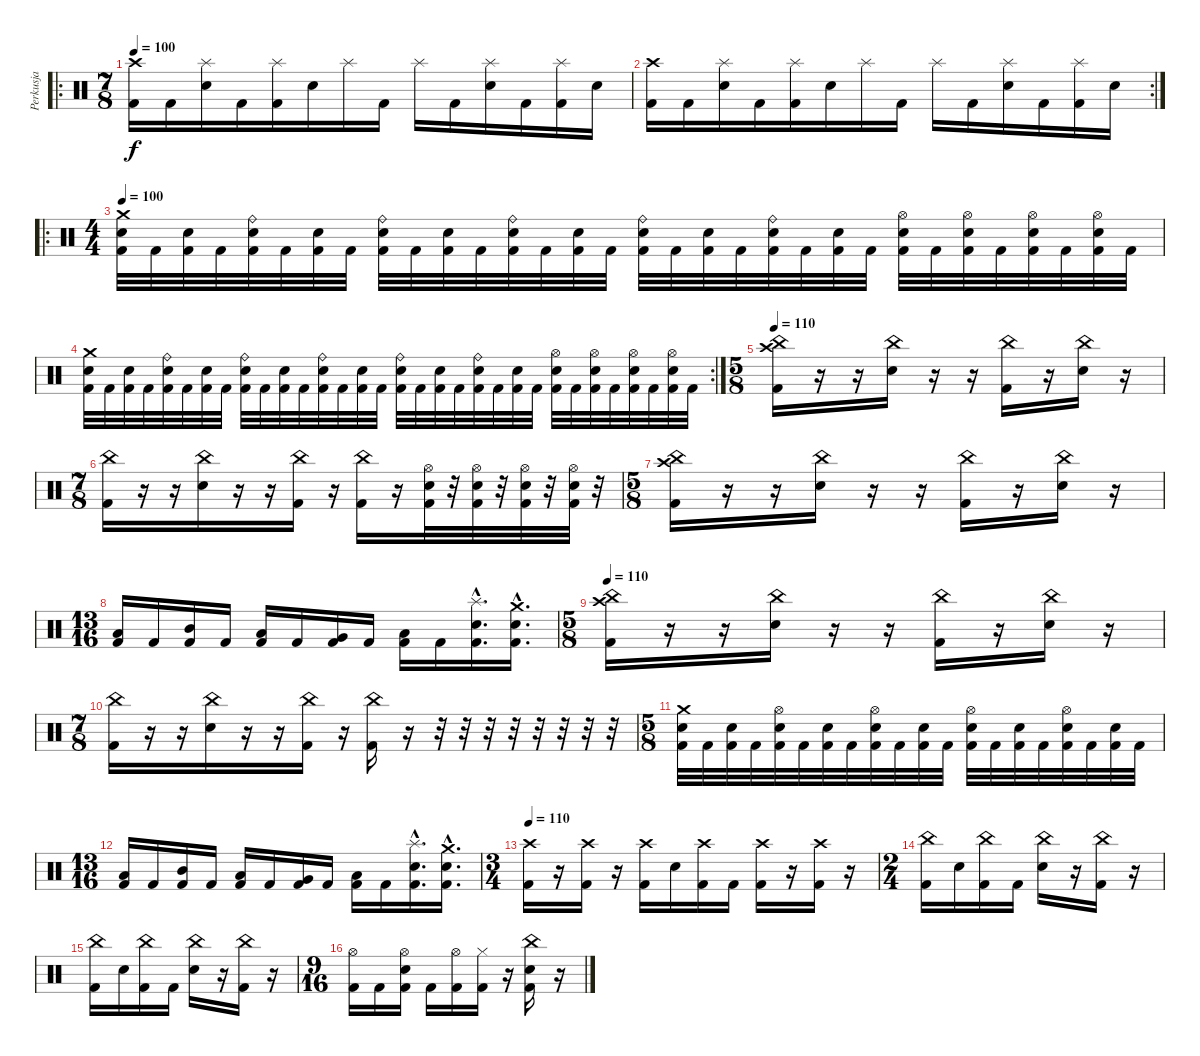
\track ("Perkusja" "Perkusja") {instrument percussion}
\staff {score}
\articulation defaults
\ro
\ts (7 8)
\tempo 100
\clef neutral
\ks c
("Crash high (hit)" "Kick (hit) 2").16{dy f} "Kick (hit) 2".16 ("Splash (hit)" "Electric Snare (hit)").16 "Kick (hit) 2".16 ("Splash (hit)" "Kick (hit) 2").16 "Electric Snare (hit)".16 "Splash (hit)".16 "Kick (hit) 2".16 "Splash (hit)".16 "Kick (hit) 2".16 ("Splash (hit)" "Electric Snare (hit)").16 "Kick (hit) 2".16 ("Splash (hit)" "Kick (hit) 2").16 "Electric Snare (hit)".16 |
\rc 2
("Crash high (hit)" "Kick (hit) 2").16 "Kick (hit) 2".16 ("Splash (hit)" "Electric Snare (hit)").16 "Kick (hit) 2".16 ("Splash (hit)" "Kick (hit) 2").16 "Electric Snare (hit)".16 "Splash (hit)".16 "Kick (hit) 2".16 "Splash (hit)".16 "Kick (hit) 2".16 ("Splash (hit)" "Electric Snare (hit)").16 "Kick (hit) 2".16 ("Splash (hit)" "Kick (hit) 2").16 "Electric Snare (hit)".16 |
\ro
\ts (4 4)
\tempo 100
("Crash medium (hit)" "Snare (hit) 2" "Kick (hit) 2").32 "Kick (hit) 2".32 ("Snare (hit) 2" "Kick (hit) 2").32 "Kick (hit) 2".32 ("Ride (bell)" "Snare (hit) 2" "Kick (hit) 2").32 "Kick (hit) 2".32 ("Snare (hit) 2" "Kick (hit) 2").32 "Kick (hit) 2".32 ("Ride (bell)" "Snare (hit) 2" "Kick (hit) 2").32 "Kick (hit) 2".32 ("Snare (hit) 2" "Kick (hit) 2").32 "Kick (hit) 2".32 ("Ride (bell)" "Snare (hit) 2" "Kick (hit) 2").32 "Kick (hit) 2".32 ("Snare (hit) 2" "Kick (hit) 2").32 "Kick (hit) 2".32 ("Ride (bell)" "Snare (hit) 2" "Kick (hit) 2").32 "Kick (hit) 2".32 ("Snare (hit) 2" "Kick (hit) 2").32 "Kick (hit) 2".32 ("Ride (bell)" "Snare (hit) 2" "Kick (hit) 2").32 "Kick (hit) 2".32 ("Snare (hit) 2" "Kick (hit) 2").32 "Kick (hit) 2".32 ("Hi-Hat (open)" "Snare (hit) 2" "Kick (hit) 2").32 "Kick (hit) 2".32 ("Hi-Hat (open)" "Snare (hit) 2" "Kick (hit) 2").32 "Kick (hit) 2".32 ("Hi-Hat (open)" "Snare (hit) 2" "Kick (hit) 2").32 "Kick (hit) 2".32 ("Hi-Hat (open)" "Snare (hit) 2" "Kick (hit) 2").32 "Kick (hit) 2".32 |
\rc 2
("Crash medium (hit)" "Snare (hit) 2" "Kick (hit) 2").32 "Kick (hit) 2".32 ("Snare (hit) 2" "Kick (hit) 2").32 "Kick (hit) 2".32 ("Ride (bell)" "Snare (hit) 2" "Kick (hit) 2").32 "Kick (hit) 2".32 ("Snare (hit) 2" "Kick (hit) 2").32 "Kick (hit) 2".32 ("Ride (bell)" "Snare (hit) 2" "Kick (hit) 2").32 "Kick (hit) 2".32 ("Snare (hit) 2" "Kick (hit) 2").32 "Kick (hit) 2".32 ("Ride (bell)" "Snare (hit) 2" "Kick (hit) 2").32 "Kick (hit) 2".32 ("Snare (hit) 2" "Kick (hit) 2").32 "Kick (hit) 2".32 ("Ride (bell)" "Snare (hit) 2" "Kick (hit) 2").32 "Kick (hit) 2".32 ("Snare (hit) 2" "Kick (hit) 2").32 "Kick (hit) 2".32 ("Ride (bell)" "Snare (hit) 2" "Kick (hit) 2").32 "Kick (hit) 2".32 ("Snare (hit) 2" "Kick (hit) 2").32 "Kick (hit) 2".32 ("Hi-Hat (open)" "Snare (hit) 2" "Kick (hit) 2").32 "Kick (hit) 2".32 ("Hi-Hat (open)" "Snare (hit) 2" "Kick (hit) 2").32 "Kick (hit) 2".32 ("Hi-Hat (open)" "Snare (hit) 2" "Kick (hit) 2").32 "Kick (hit) 2".32 ("Hi-Hat (open)" "Snare (hit) 2" "Kick (hit) 2").32 "Kick (hit) 2".32 |
\ts (5 8)
\tempo 110
("Crash high (hit)" "China (hit)" "Kick (hit) 2").16 r.16 r.16 ("China (hit)" "Electric Snare (hit)").16 r.16 r.16 ("China (hit)" "Kick (hit) 2").16 r.16 ("China (hit)" "Electric Snare (hit)").16 r.16 |
\ts (7 8)
("China (hit)" "Kick (hit) 2").16 r.16 r.16 ("China (hit)" "Electric Snare (hit)").16 r.16 r.16 ("China (hit)" "Kick (hit) 2").16 r.16 ("China (hit)" "Kick (hit) 2").16 r.16 ("Hi-Hat (open)" "Electric Snare (hit)" "Kick (hit) 2").32 r.32 ("Hi-Hat (open)" "Electric Snare (hit)" "Kick (hit) 2").32 r.32 ("Hi-Hat (open)" "Electric Snare (hit)" "Kick (hit) 2").32 r.32 ("Hi-Hat (open)" "Electric Snare (hit)" "Kick (hit) 2").32 r.32 |
\ts (5 8)
("Crash high (hit)" "China (hit)" "Kick (hit) 2").16 r.16 r.16 ("China (hit)" "Electric Snare (hit)").16 r.16 r.16 ("China (hit)" "Kick (hit) 2").16 r.16 ("China (hit)" "Electric Snare (hit)").16 r.16 |
\ts (13 16)
("Low Tom (hit)" "Kick (hit) 2").16 "Kick (hit) 2".16 ("Mid Tom (hit)" "Kick (hit) 2").16 "Kick (hit) 2".16 ("Low Tom (hit)" "Kick (hit) 2").16 "Kick (hit) 2".16 ("Very Low Tom (hit)" "Kick (hit) 2").16 "Kick (hit) 2".16 ("Low Tom (hit)" "Kick (hit) 2").16 "Kick (hit) 2".16 ("Splash (hit)"{hac} "Electric Snare (hit)"{hac} "Kick (hit) 2"{hac}).16{d} ("Crash medium (hit)"{hac} "Electric Snare (hit)"{hac} "Kick (hit) 2"{hac}).16{d} |
\ts (5 8)
\tempo 110
("Crash high (hit)" "China (hit)" "Kick (hit) 2").16 r.16 r.16 ("China (hit)" "Electric Snare (hit)").16 r.16 r.16 ("China (hit)" "Kick (hit) 2").16 r.16 ("China (hit)" "Electric Snare (hit)").16 r.16 |
\ts (7 8)
("China (hit)" "Kick (hit) 2").16 r.16 r.16 ("China (hit)" "Electric Snare (hit)").16 r.16 r.16 ("China (hit)" "Kick (hit) 2").16 r.16 ("China (hit)" "Kick (hit) 2").16 r.16 r.32 r.32 r.32 r.32 r.32 r.32 r.32 r.32 |
\ts (5 8)
("Crash medium (hit)" "Electric Snare (hit)" "Kick (hit) 2").32 "Kick (hit) 2".32 ("Electric Snare (hit)" "Kick (hit) 2").32 "Kick (hit) 2".32 ("Hi-Hat (open)" "Electric Snare (hit)" "Kick (hit) 2").32 "Kick (hit) 2".32 ("Electric Snare (hit)" "Kick (hit) 2").32 "Kick (hit) 2".32 ("Hi-Hat (open)" "Electric Snare (hit)" "Kick (hit) 2").32 "Kick (hit) 2".32 ("Electric Snare (hit)" "Kick (hit) 2").32 "Kick (hit) 2".32 ("Hi-Hat (open)" "Electric Snare (hit)" "Kick (hit) 2").32 "Kick (hit) 2".32 ("Electric Snare (hit)" "Kick (hit) 2").32 "Kick (hit) 2".32 ("Hi-Hat (open)" "Electric Snare (hit)" "Kick (hit) 2").32 "Kick (hit) 2".32 ("Electric Snare (hit)" "Kick (hit) 2").32 "Kick (hit) 2".32 |
\ts (13 16)
("Low Tom (hit)" "Kick (hit) 2").16 "Kick (hit) 2".16 ("Mid Tom (hit)" "Kick (hit) 2").16 "Kick (hit) 2".16 ("Low Tom (hit)" "Kick (hit) 2").16 "Kick (hit) 2".16 ("Very Low Tom (hit)" "Kick (hit) 2").16 "Kick (hit) 2".16 ("Low Tom (hit)" "Kick (hit) 2").16 "Kick (hit) 2".16 ("Splash (hit)"{hac} "Electric Snare (hit)"{hac} "Kick (hit) 2"{hac}).16{d} ("Crash medium (hit)"{hac} "Electric Snare (hit)"{hac} "Kick (hit) 2"{hac}).16{d} |
\ts (3 4)
\tempo 110
("Crash high (hit)" "Kick (hit) 2").16 r.16 ("Crash high (hit)" "Kick (hit) 2").16 r.16 ("Crash high (hit)" "Kick (hit) 2").16 "Electric Snare (hit)".16 ("Crash high (hit)" "Kick (hit) 2").16 "Kick (hit) 2".16 ("Crash high (hit)" "Kick (hit) 2").16 r.16 ("Crash high (hit)" "Kick (hit) 2").16 r.16 |
\ts (2 4)
("China (hit)" "Kick (hit) 2").16 "Electric Snare (hit)".16 ("China (hit)" "Kick (hit) 2").16 "Kick (hit) 2".16 ("China (hit)" "Electric Snare (hit)").16 r.16 ("China (hit)" "Kick (hit) 2").16 r.16 |
("China (hit)" "Kick (hit) 2").16 "Electric Snare (hit)".16 ("China (hit)" "Kick (hit) 2").16 "Kick (hit) 2".16 ("China (hit)" "Electric Snare (hit)").16 r.16 ("China (hit)" "Kick (hit) 2").16 r.16 |
\ts (9 16)
("Hi-Hat (open)" "Kick (hit) 2").16 "Kick (hit) 2".16 ("Hi-Hat (open)" "Electric Snare (hit)" "Kick (hit) 2").16 "Kick (hit) 2".16 ("Hi-Hat (open)" "Kick (hit) 2").16 ("Hi-Hat (closed)" "Kick (hit) 2").16 r.16 ("China (hit)" "Electric Snare (hit)" "Kick (hit) 2").16 r.16
